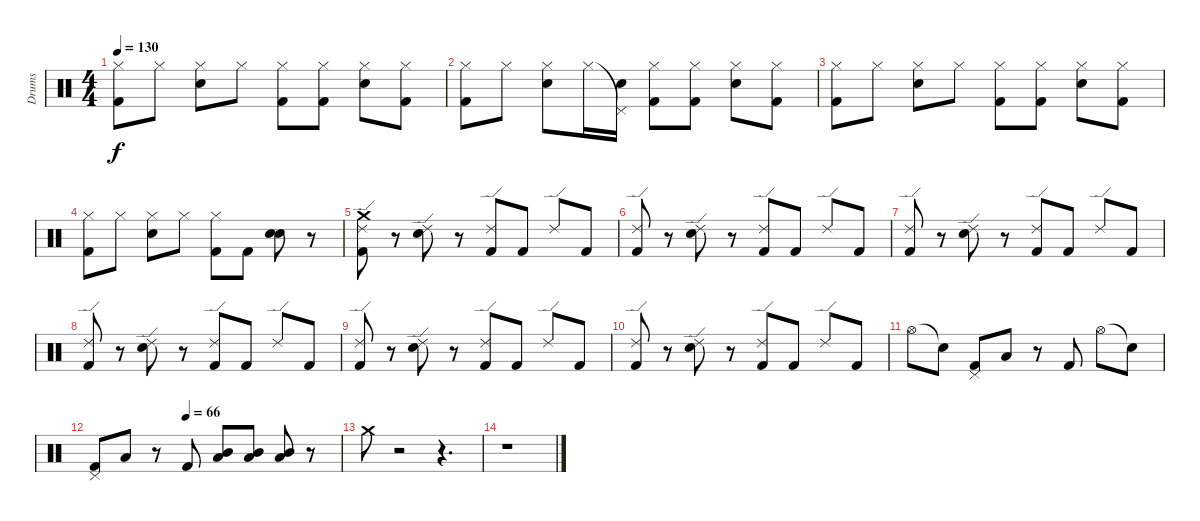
\track ("Drums" "Drums") {instrument percussion}
\staff {score}
\articulation defaults
\ts (4 4)
\tempo 130
\clef neutral
\ks c
("Hi-Hat (closed)" "Kick (hit) 2").8{dy f} "Hi-Hat (closed)".8 ("Hi-Hat (closed)" "Electric Snare (hit)").8 "Hi-Hat (closed)".8 ("Hi-Hat (closed)" "Kick (hit) 2").8 ("Hi-Hat (closed)" "Kick (hit) 2").8 ("Hi-Hat (closed)" "Electric Snare (hit)").8 ("Hi-Hat (closed)" "Kick (hit) 2").8 |
("Hi-Hat (closed)" "Kick (hit) 2").8 "Hi-Hat (closed)".8 ("Hi-Hat (closed)" "Electric Snare (hit)").8 "Hi-Hat (closed)".16 ("Pedal Hi-Hat (hit)"{t} "Electric Snare (hit)").16 ("Hi-Hat (closed)" "Kick (hit) 2").8 ("Hi-Hat (closed)" "Kick (hit) 2").8 ("Hi-Hat (closed)" "Electric Snare (hit)").8 ("Hi-Hat (closed)" "Kick (hit) 2").8 |
("Hi-Hat (closed)" "Kick (hit) 2").8 "Hi-Hat (closed)".8 ("Hi-Hat (closed)" "Electric Snare (hit)").8 "Hi-Hat (closed)".8 ("Hi-Hat (closed)" "Kick (hit) 2").8 ("Hi-Hat (closed)" "Kick (hit) 2").8 ("Hi-Hat (closed)" "Electric Snare (hit)").8 ("Hi-Hat (closed)" "Kick (hit) 2").8 |
("Hi-Hat (closed)" "Kick (hit) 2").8 "Hi-Hat (closed)".8 ("Hi-Hat (closed)" "Electric Snare (hit)").8 "Hi-Hat (closed)".8 ("Hi-Hat (closed)" "Kick (hit) 2").8 "Kick (hit) 2".8 ("Electric Snare (hit)" "Electric Snare (hit)").8 r.8 |
("Ride (edge) 2" "Kick (hit) 2" "Crash medium (hit)").8 r.8 ("Ride (edge) 2" "Electric Snare (hit)").8 r.8 ("Ride (edge) 2" "Kick (hit) 2").8 "Kick (hit) 2".8 "Ride (edge) 2".8 "Kick (hit) 2".8 |
("Ride (edge) 2" "Kick (hit) 2").8 r.8 ("Ride (edge) 2" "Electric Snare (hit)").8 r.8 ("Ride (edge) 2" "Kick (hit) 2").8 "Kick (hit) 2".8 "Ride (edge) 2".8 "Kick (hit) 2".8 |
("Ride (edge) 2" "Kick (hit) 2").8 r.8 ("Ride (edge) 2" "Electric Snare (hit)").8 r.8 ("Ride (edge) 2" "Kick (hit) 2").8 "Kick (hit) 2".8 "Ride (edge) 2".8 "Kick (hit) 2".8 |
("Ride (edge) 2" "Kick (hit) 2").8 r.8 ("Ride (edge) 2" "Electric Snare (hit)").8 r.8 ("Ride (edge) 2" "Kick (hit) 2").8 "Kick (hit) 2".8 "Ride (edge) 2".8 "Kick (hit) 2".8 |
("Ride (edge) 2" "Kick (hit) 2").8 r.8 ("Ride (edge) 2" "Electric Snare (hit)").8 r.8 ("Ride (edge) 2" "Kick (hit) 2").8 "Kick (hit) 2".8 "Ride (edge) 2".8 "Kick (hit) 2".8 |
("Ride (edge) 2" "Kick (hit) 2").8 r.8 ("Ride (edge) 2" "Electric Snare (hit)").8 r.8 ("Ride (edge) 2" "Kick (hit) 2").8 "Kick (hit) 2".8 "Ride (edge) 2".8 "Kick (hit) 2".8 |
"Hi-Hat (open)".8 "Snare (hit)"{t}.8 ("Kick (hit) 2" "Pedal Hi-Hat (hit)").8 "Low Tom (hit)".8 r.8 "Kick (hit) 2".8 "Hi-Hat (open)".8 "Snare (hit)"{t}.8 |
\tempo (66 0.375)
("Kick (hit) 2" "Pedal Hi-Hat (hit)").8 "Low Tom (hit)".8 r.8 "Kick (hit) 2".8 ("Low Tom (hit)" "Mid Tom (hit)").8 ("Low Tom (hit)" "Mid Tom (hit)").8 ("Low Tom (hit)" "Mid Tom (hit)").8 r.8 |
"Crash medium (hit)".8 r.2 r.4{d} |
r.1
